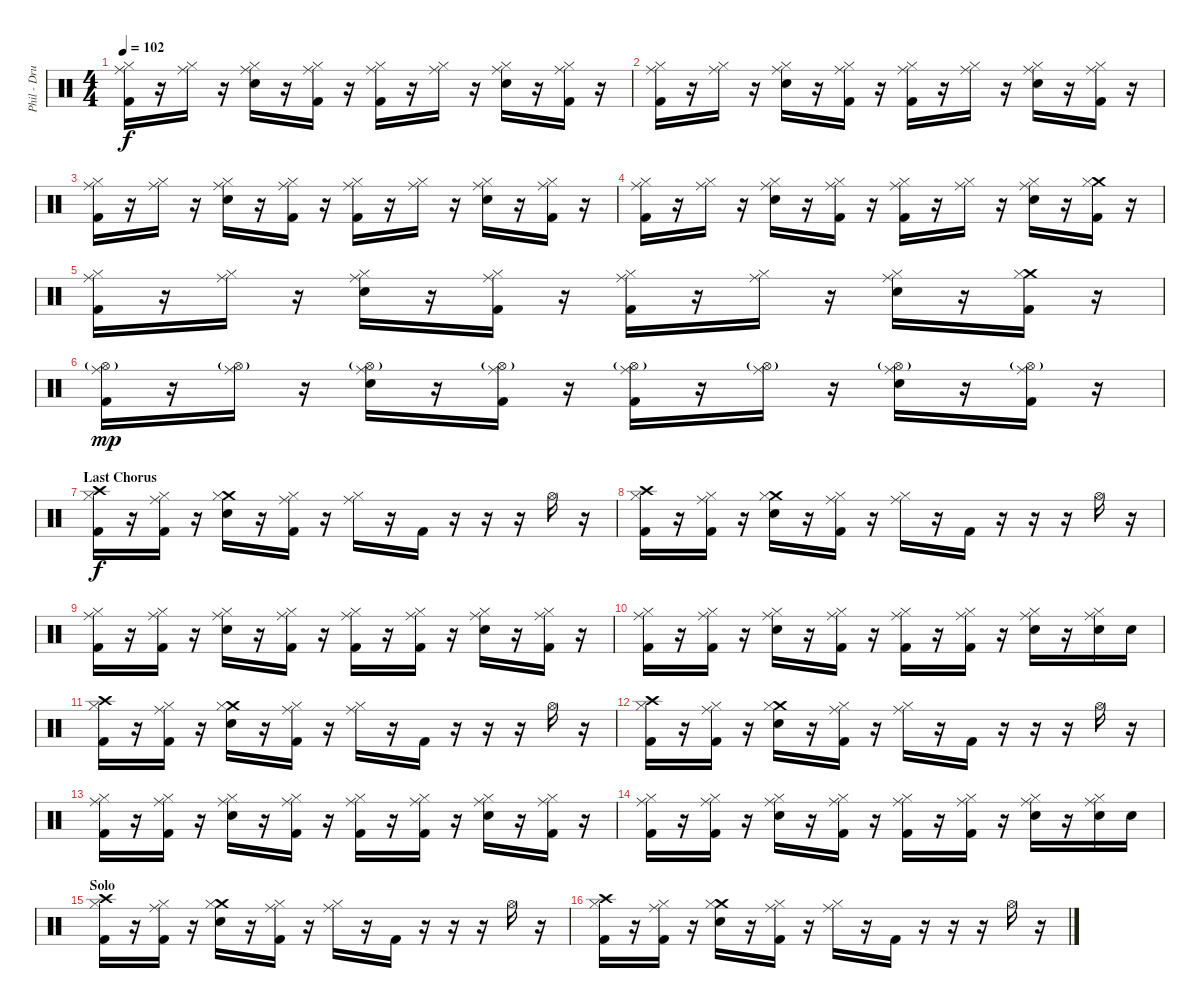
\track ("Phil - Drums" "Phil - Dru") {instrument percussion}
\staff {score}
\articulation defaults
\ts (4 4)
\tempo 102
\clef neutral
\ks c
("Ride (middle)" "Kick (hit) 2" "Hi-Hat (closed)").16{dy f} r.16 ("Ride (middle)" "Hi-Hat (closed)").16 r.16 ("Ride (middle)" "Electric Snare (hit)" "Hi-Hat (closed)").16 r.16 ("Ride (middle)" "Kick (hit) 2" "Hi-Hat (closed)").16 r.16 ("Ride (middle)" "Kick (hit) 2" "Hi-Hat (closed)").16 r.16 ("Ride (middle)" "Hi-Hat (closed)").16 r.16 ("Ride (middle)" "Electric Snare (hit)" "Hi-Hat (closed)").16 r.16 ("Ride (middle)" "Kick (hit) 2" "Hi-Hat (closed)").16 r.16 |
("Ride (middle)" "Kick (hit) 2" "Hi-Hat (closed)").16 r.16 ("Ride (middle)" "Hi-Hat (closed)").16 r.16 ("Ride (middle)" "Electric Snare (hit)" "Hi-Hat (closed)").16 r.16 ("Ride (middle)" "Kick (hit) 2" "Hi-Hat (closed)").16 r.16 ("Ride (middle)" "Kick (hit) 2" "Hi-Hat (closed)").16 r.16 ("Ride (middle)" "Hi-Hat (closed)").16 r.16 ("Ride (middle)" "Electric Snare (hit)" "Hi-Hat (closed)").16 r.16 ("Ride (middle)" "Kick (hit) 2" "Hi-Hat (closed)").16 r.16 |
("Ride (middle)" "Kick (hit) 2" "Hi-Hat (closed)").16 r.16 ("Ride (middle)" "Hi-Hat (closed)").16 r.16 ("Ride (middle)" "Electric Snare (hit)" "Hi-Hat (closed)").16 r.16 ("Ride (middle)" "Kick (hit) 2" "Hi-Hat (closed)").16 r.16 ("Ride (middle)" "Kick (hit) 2" "Hi-Hat (closed)").16 r.16 ("Ride (middle)" "Hi-Hat (closed)").16 r.16 ("Ride (middle)" "Electric Snare (hit)" "Hi-Hat (closed)").16 r.16 ("Ride (middle)" "Kick (hit) 2" "Hi-Hat (closed)").16 r.16 |
("Ride (middle)" "Kick (hit) 2" "Hi-Hat (closed)").16 r.16 ("Ride (middle)" "Hi-Hat (closed)").16 r.16 ("Ride (middle)" "Electric Snare (hit)" "Hi-Hat (closed)").16 r.16 ("Ride (middle)" "Kick (hit) 2" "Hi-Hat (closed)").16 r.16 ("Ride (middle)" "Kick (hit) 2" "Hi-Hat (closed)").16 r.16 ("Ride (middle)" "Hi-Hat (closed)").16 r.16 ("Ride (middle)" "Electric Snare (hit)" "Hi-Hat (closed)").16 r.16 ("Crash medium (hit)" "Kick (hit) 2" "Hi-Hat (closed)").16 r.16 |
("Ride (middle)" "Kick (hit) 2" "Hi-Hat (closed)").16 r.16 ("Ride (middle)" "Hi-Hat (closed)").16 r.16 ("Ride (middle)" "Electric Snare (hit)" "Hi-Hat (closed)").16 r.16 ("Ride (middle)" "Kick (hit) 2" "Hi-Hat (closed)").16 r.16 ("Ride (middle)" "Kick (hit) 2" "Hi-Hat (closed)").16 r.16 ("Ride (middle)" "Hi-Hat (closed)").16 r.16 ("Ride (middle)" "Electric Snare (hit)" "Hi-Hat (closed)").16 r.16 ("Crash medium (hit)" "Kick (hit) 2" "Hi-Hat (closed)").16 r.16 |
("Ride (middle)" "Kick (hit) 2" "Hi-Hat (open)"{g}).16{dy mp} r.16 ("Ride (middle)" "Hi-Hat (open)"{g}).16 r.16 ("Ride (middle)" "Electric Snare (hit)" "Hi-Hat (open)"{g}).16 r.16 ("Ride (middle)" "Kick (hit) 2" "Hi-Hat (open)"{g}).16 r.16 ("Ride (middle)" "Kick (hit) 2" "Hi-Hat (open)"{g}).16 r.16 ("Ride (middle)" "Hi-Hat (open)"{g}).16 r.16 ("Ride (middle)" "Electric Snare (hit)" "Hi-Hat (open)"{g}).16 r.16 ("Ride (middle)" "Kick (hit) 2" "Hi-Hat (open)"{g}).16 r.16 |
\section ("" "Last Chorus")
("Crash high (hit)" "Kick (hit) 2" "Hi-Hat (closed)").16{dy f} r.16 ("Ride (middle)" "Kick (hit) 2" "Hi-Hat (closed)").16 r.16 ("Crash medium (hit)" "Electric Snare (hit)" "Hi-Hat (closed)").16 r.16 ("Ride (middle)" "Kick (hit) 2" "Hi-Hat (closed)").16 r.16 ("Ride (middle)" "Hi-Hat (closed)").16 r.16 "Kick (hit) 2".16 r.16 r.16 r.16 "Hi-Hat (open)".16 r.16 |
("Crash high (hit)" "Kick (hit) 2" "Hi-Hat (closed)").16 r.16 ("Ride (middle)" "Kick (hit) 2" "Hi-Hat (closed)").16 r.16 ("Crash medium (hit)" "Electric Snare (hit)" "Hi-Hat (closed)").16 r.16 ("Ride (middle)" "Kick (hit) 2" "Hi-Hat (closed)").16 r.16 ("Ride (middle)" "Hi-Hat (closed)").16 r.16 "Kick (hit) 2".16 r.16 r.16 r.16 "Hi-Hat (open)".16 r.16 |
("Ride (middle)" "Kick (hit) 2" "Hi-Hat (closed)").16 r.16 ("Ride (middle)" "Kick (hit) 2" "Hi-Hat (closed)").16 r.16 ("Ride (middle)" "Electric Snare (hit)" "Hi-Hat (closed)").16 r.16 ("Ride (middle)" "Kick (hit) 2" "Hi-Hat (closed)").16 r.16 ("Ride (middle)" "Kick (hit) 2" "Hi-Hat (closed)").16 r.16 ("Ride (middle)" "Kick (hit) 2" "Hi-Hat (closed)").16 r.16 ("Ride (middle)" "Electric Snare (hit)" "Hi-Hat (closed)").16 r.16 ("Ride (middle)" "Kick (hit) 2" "Hi-Hat (closed)").16 r.16 |
("Ride (middle)" "Kick (hit) 2" "Hi-Hat (closed)").16 r.16 ("Ride (middle)" "Kick (hit) 2" "Hi-Hat (closed)").16 r.16 ("Ride (middle)" "Electric Snare (hit)" "Hi-Hat (closed)").16 r.16 ("Ride (middle)" "Kick (hit) 2" "Hi-Hat (closed)").16 r.16 ("Ride (middle)" "Kick (hit) 2" "Hi-Hat (closed)").16 r.16 ("Ride (middle)" "Kick (hit) 2" "Hi-Hat (closed)").16 r.16 ("Ride (middle)" "Electric Snare (hit)" "Hi-Hat (closed)").16 r.16 ("Ride (middle)" "Electric Snare (hit)" "Hi-Hat (closed)").16 "Electric Snare (hit)".16 |
("Crash high (hit)" "Kick (hit) 2" "Hi-Hat (closed)").16 r.16 ("Ride (middle)" "Kick (hit) 2" "Hi-Hat (closed)").16 r.16 ("Crash medium (hit)" "Electric Snare (hit)" "Hi-Hat (closed)").16 r.16 ("Ride (middle)" "Kick (hit) 2" "Hi-Hat (closed)").16 r.16 ("Ride (middle)" "Hi-Hat (closed)").16 r.16 "Kick (hit) 2".16 r.16 r.16 r.16 "Hi-Hat (open)".16 r.16 |
("Crash high (hit)" "Kick (hit) 2" "Hi-Hat (closed)").16 r.16 ("Ride (middle)" "Kick (hit) 2" "Hi-Hat (closed)").16 r.16 ("Crash medium (hit)" "Electric Snare (hit)" "Hi-Hat (closed)").16 r.16 ("Ride (middle)" "Kick (hit) 2" "Hi-Hat (closed)").16 r.16 ("Ride (middle)" "Hi-Hat (closed)").16 r.16 "Kick (hit) 2".16 r.16 r.16 r.16 "Hi-Hat (open)".16 r.16 |
("Ride (middle)" "Kick (hit) 2" "Hi-Hat (closed)").16 r.16 ("Ride (middle)" "Kick (hit) 2" "Hi-Hat (closed)").16 r.16 ("Ride (middle)" "Electric Snare (hit)" "Hi-Hat (closed)").16 r.16 ("Ride (middle)" "Kick (hit) 2" "Hi-Hat (closed)").16 r.16 ("Ride (middle)" "Kick (hit) 2" "Hi-Hat (closed)").16 r.16 ("Ride (middle)" "Kick (hit) 2" "Hi-Hat (closed)").16 r.16 ("Ride (middle)" "Electric Snare (hit)" "Hi-Hat (closed)").16 r.16 ("Ride (middle)" "Kick (hit) 2" "Hi-Hat (closed)").16 r.16 |
("Ride (middle)" "Kick (hit) 2" "Hi-Hat (closed)").16 r.16 ("Ride (middle)" "Kick (hit) 2" "Hi-Hat (closed)").16 r.16 ("Ride (middle)" "Electric Snare (hit)" "Hi-Hat (closed)").16 r.16 ("Ride (middle)" "Kick (hit) 2" "Hi-Hat (closed)").16 r.16 ("Ride (middle)" "Kick (hit) 2" "Hi-Hat (closed)").16 r.16 ("Ride (middle)" "Kick (hit) 2" "Hi-Hat (closed)").16 r.16 ("Ride (middle)" "Electric Snare (hit)" "Hi-Hat (closed)").16 r.16 ("Ride (middle)" "Electric Snare (hit)" "Hi-Hat (closed)").16 "Electric Snare (hit)".16 |
\section ("" "Solo")
("Crash high (hit)" "Kick (hit) 2" "Hi-Hat (closed)").16 r.16 ("Ride (middle)" "Kick (hit) 2" "Hi-Hat (closed)").16 r.16 ("Crash medium (hit)" "Electric Snare (hit)" "Hi-Hat (closed)").16 r.16 ("Ride (middle)" "Kick (hit) 2" "Hi-Hat (closed)").16 r.16 ("Ride (middle)" "Hi-Hat (closed)").16 r.16 "Kick (hit) 2".16 r.16 r.16 r.16 "Hi-Hat (open)".16 r.16 |
("Crash high (hit)" "Kick (hit) 2" "Hi-Hat (closed)").16 r.16 ("Ride (middle)" "Kick (hit) 2" "Hi-Hat (closed)").16 r.16 ("Crash medium (hit)" "Electric Snare (hit)" "Hi-Hat (closed)").16 r.16 ("Ride (middle)" "Kick (hit) 2" "Hi-Hat (closed)").16 r.16 ("Ride (middle)" "Hi-Hat (closed)").16 r.16 "Kick (hit) 2".16 r.16 r.16 r.16 "Hi-Hat (open)".16 r.16
